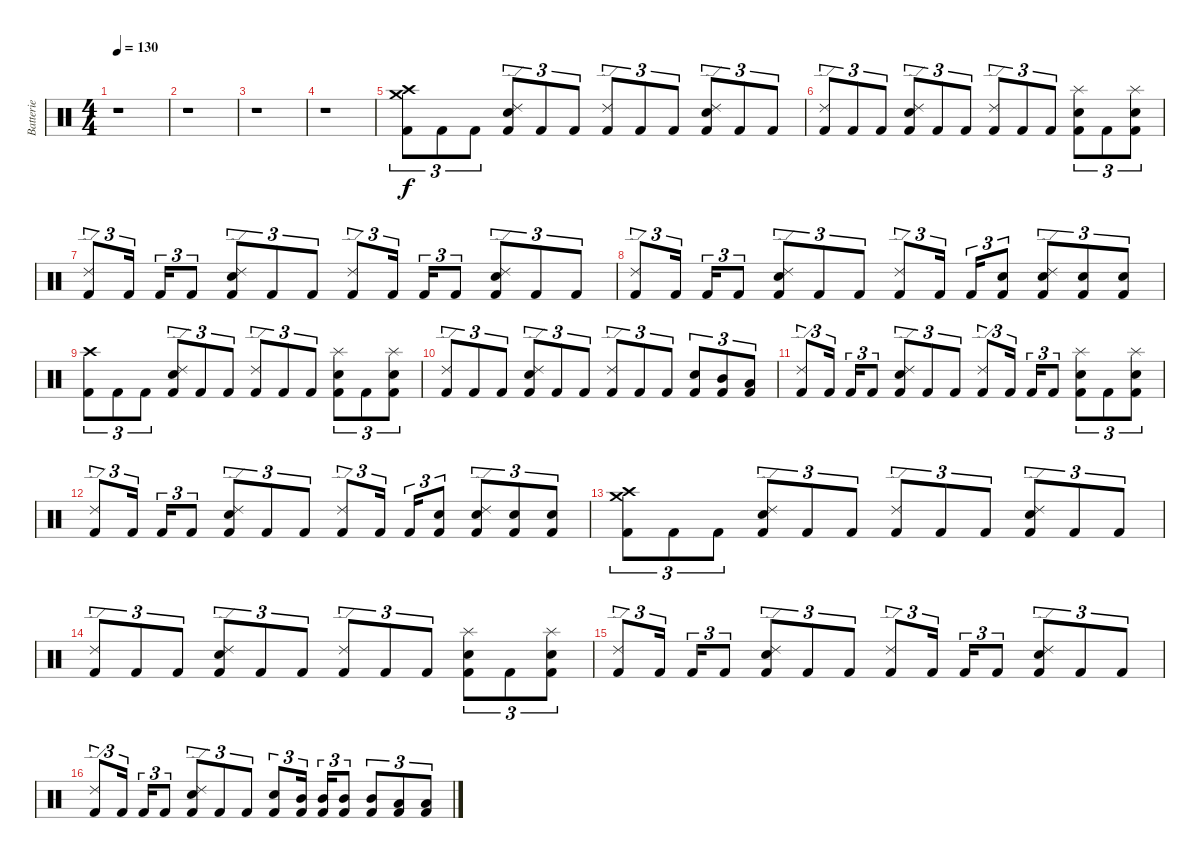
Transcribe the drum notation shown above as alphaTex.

\track ("Batterie" "Batterie") {instrument percussion}
\staff {score}
\articulation defaults
\ts (4 4)
\tempo 130
\clef neutral
\ks c
r.1{dy f} |
r.1 |
r.1 |
r.1 |
("Crash high (hit)" "Crash medium (hit)" "Kick (hit) 2").8{tu (3 2)} "Kick (hit) 2".8{tu (3 2)} "Kick (hit) 2".8{tu (3 2)} ("Ride (edge) 2" "Electric Snare (hit)" "Kick (hit) 2").8{tu (3 2)} "Kick (hit) 2".8{tu (3 2)} "Kick (hit) 2".8{tu (3 2)} ("Ride (edge) 2" "Kick (hit) 2").8{tu (3 2)} "Kick (hit) 2".8{tu (3 2)} "Kick (hit) 2".8{tu (3 2)} ("Ride (edge) 2" "Electric Snare (hit)" "Kick (hit) 2").8{tu (3 2)} "Kick (hit) 2".8{tu (3 2)} "Kick (hit) 2".8{tu (3 2)} |
("Ride (edge) 2" "Kick (hit) 2").8{tu (3 2)} "Kick (hit) 2".8{tu (3 2)} "Kick (hit) 2".8{tu (3 2)} ("Ride (edge) 2" "Electric Snare (hit)" "Kick (hit) 2").8{tu (3 2)} "Kick (hit) 2".8{tu (3 2)} "Kick (hit) 2".8{tu (3 2)} ("Ride (edge) 2" "Kick (hit) 2").8{tu (3 2)} "Kick (hit) 2".8{tu (3 2)} "Kick (hit) 2".8{tu (3 2)} ("Splash (hit)" "Electric Snare (hit)" "Kick (hit) 2").8{tu (3 2)} "Kick (hit) 2".8{tu (3 2)} ("Splash (hit)" "Electric Snare (hit)" "Kick (hit) 2").8{tu (3 2)} |
("Ride (edge) 2" "Kick (hit) 2").8{tu (3 2)} "Kick (hit) 2".16{tu (3 2)} "Kick (hit) 2".16{tu (3 2)} "Kick (hit) 2".8{tu (3 2)} ("Ride (edge) 2" "Electric Snare (hit)" "Kick (hit) 2").8{tu (3 2)} "Kick (hit) 2".8{tu (3 2)} "Kick (hit) 2".8{tu (3 2)} ("Ride (edge) 2" "Kick (hit) 2").8{tu (3 2)} "Kick (hit) 2".16{tu (3 2)} "Kick (hit) 2".16{tu (3 2)} "Kick (hit) 2".8{tu (3 2)} ("Ride (edge) 2" "Electric Snare (hit)" "Kick (hit) 2").8{tu (3 2)} "Kick (hit) 2".8{tu (3 2)} "Kick (hit) 2".8{tu (3 2)} |
("Ride (edge) 2" "Kick (hit) 2").8{tu (3 2)} "Kick (hit) 2".16{tu (3 2)} "Kick (hit) 2".16{tu (3 2)} "Kick (hit) 2".8{tu (3 2)} ("Ride (edge) 2" "Electric Snare (hit)" "Kick (hit) 2").8{tu (3 2)} "Kick (hit) 2".8{tu (3 2)} "Kick (hit) 2".8{tu (3 2)} ("Ride (edge) 2" "Kick (hit) 2").8{tu (3 2)} "Kick (hit) 2".16{tu (3 2)} "Kick (hit) 2".16{tu (3 2)} ("Electric Snare (hit)" "Kick (hit) 2").8{tu (3 2)} ("Ride (edge) 2" "Electric Snare (hit)" "Kick (hit) 2").8{tu (3 2)} ("Electric Snare (hit)" "Kick (hit) 2").8{tu (3 2)} ("Electric Snare (hit)" "Kick (hit) 2").8{tu (3 2)} |
("Crash high (hit)" "Kick (hit) 2").8{tu (3 2)} "Kick (hit) 2".8{tu (3 2)} "Kick (hit) 2".8{tu (3 2)} ("Ride (edge) 2" "Electric Snare (hit)" "Kick (hit) 2").8{tu (3 2)} "Kick (hit) 2".8{tu (3 2)} "Kick (hit) 2".8{tu (3 2)} ("Ride (edge) 2" "Kick (hit) 2").8{tu (3 2)} "Kick (hit) 2".8{tu (3 2)} "Kick (hit) 2".8{tu (3 2)} ("Splash (hit)" "Electric Snare (hit)" "Kick (hit) 2").8{tu (3 2)} "Kick (hit) 2".8{tu (3 2)} ("Splash (hit)" "Electric Snare (hit)" "Kick (hit) 2").8{tu (3 2)} |
("Ride (edge) 2" "Kick (hit) 2").8{tu (3 2)} "Kick (hit) 2".8{tu (3 2)} "Kick (hit) 2".8{tu (3 2)} ("Ride (edge) 2" "Electric Snare (hit)" "Kick (hit) 2").8{tu (3 2)} "Kick (hit) 2".8{tu (3 2)} "Kick (hit) 2".8{tu (3 2)} ("Ride (edge) 2" "Kick (hit) 2").8{tu (3 2)} "Kick (hit) 2".8{tu (3 2)} "Kick (hit) 2".8{tu (3 2)} ("Electric Snare (hit)" "Kick (hit) 2").8{tu (3 2)} ("Mid Tom (hit)" "Kick (hit) 2").8{tu (3 2)} ("Low Tom (hit)" "Kick (hit) 2").8{tu (3 2)} |
("Ride (edge) 2" "Kick (hit) 2").8{tu (3 2)} "Kick (hit) 2".16{tu (3 2)} "Kick (hit) 2".16{tu (3 2)} "Kick (hit) 2".8{tu (3 2)} ("Ride (edge) 2" "Electric Snare (hit)" "Kick (hit) 2").8{tu (3 2)} "Kick (hit) 2".8{tu (3 2)} "Kick (hit) 2".8{tu (3 2)} ("Ride (edge) 2" "Kick (hit) 2").8{tu (3 2)} "Kick (hit) 2".16{tu (3 2)} "Kick (hit) 2".16{tu (3 2)} "Kick (hit) 2".8{tu (3 2)} ("Splash (hit)" "Electric Snare (hit)" "Kick (hit) 2").8{tu (3 2)} "Kick (hit) 2".8{tu (3 2)} ("Splash (hit)" "Electric Snare (hit)" "Kick (hit) 2").8{tu (3 2)} |
("Ride (edge) 2" "Kick (hit) 2").8{tu (3 2)} "Kick (hit) 2".16{tu (3 2)} "Kick (hit) 2".16{tu (3 2)} "Kick (hit) 2".8{tu (3 2)} ("Ride (edge) 2" "Electric Snare (hit)" "Kick (hit) 2").8{tu (3 2)} "Kick (hit) 2".8{tu (3 2)} "Kick (hit) 2".8{tu (3 2)} ("Ride (edge) 2" "Kick (hit) 2").8{tu (3 2)} "Kick (hit) 2".16{tu (3 2)} "Kick (hit) 2".16{tu (3 2)} ("Electric Snare (hit)" "Kick (hit) 2").8{tu (3 2)} ("Ride (edge) 2" "Electric Snare (hit)" "Kick (hit) 2").8{tu (3 2)} ("Electric Snare (hit)" "Kick (hit) 2").8{tu (3 2)} ("Electric Snare (hit)" "Kick (hit) 2").8{tu (3 2)} |
("Crash high (hit)" "Crash medium (hit)" "Kick (hit) 2").8{tu (3 2)} "Kick (hit) 2".8{tu (3 2)} "Kick (hit) 2".8{tu (3 2)} ("Ride (edge) 2" "Electric Snare (hit)" "Kick (hit) 2").8{tu (3 2)} "Kick (hit) 2".8{tu (3 2)} "Kick (hit) 2".8{tu (3 2)} ("Ride (edge) 2" "Kick (hit) 2").8{tu (3 2)} "Kick (hit) 2".8{tu (3 2)} "Kick (hit) 2".8{tu (3 2)} ("Ride (edge) 2" "Electric Snare (hit)" "Kick (hit) 2").8{tu (3 2)} "Kick (hit) 2".8{tu (3 2)} "Kick (hit) 2".8{tu (3 2)} |
("Ride (edge) 2" "Kick (hit) 2").8{tu (3 2)} "Kick (hit) 2".8{tu (3 2)} "Kick (hit) 2".8{tu (3 2)} ("Ride (edge) 2" "Electric Snare (hit)" "Kick (hit) 2").8{tu (3 2)} "Kick (hit) 2".8{tu (3 2)} "Kick (hit) 2".8{tu (3 2)} ("Ride (edge) 2" "Kick (hit) 2").8{tu (3 2)} "Kick (hit) 2".8{tu (3 2)} "Kick (hit) 2".8{tu (3 2)} ("Splash (hit)" "Electric Snare (hit)" "Kick (hit) 2").8{tu (3 2)} "Kick (hit) 2".8{tu (3 2)} ("Splash (hit)" "Electric Snare (hit)" "Kick (hit) 2").8{tu (3 2)} |
("Ride (edge) 2" "Kick (hit) 2").8{tu (3 2)} "Kick (hit) 2".16{tu (3 2)} "Kick (hit) 2".16{tu (3 2)} "Kick (hit) 2".8{tu (3 2)} ("Ride (edge) 2" "Electric Snare (hit)" "Kick (hit) 2").8{tu (3 2)} "Kick (hit) 2".8{tu (3 2)} "Kick (hit) 2".8{tu (3 2)} ("Ride (edge) 2" "Kick (hit) 2").8{tu (3 2)} "Kick (hit) 2".16{tu (3 2)} "Kick (hit) 2".16{tu (3 2)} "Kick (hit) 2".8{tu (3 2)} ("Ride (edge) 2" "Electric Snare (hit)" "Kick (hit) 2").8{tu (3 2)} "Kick (hit) 2".8{tu (3 2)} "Kick (hit) 2".8{tu (3 2)} |
("Ride (edge) 2" "Kick (hit) 2").8{tu (3 2)} "Kick (hit) 2".16{tu (3 2)} "Kick (hit) 2".16{tu (3 2)} "Kick (hit) 2".8{tu (3 2)} ("Ride (edge) 2" "Electric Snare (hit)" "Kick (hit) 2").8{tu (3 2)} "Kick (hit) 2".8{tu (3 2)} "Kick (hit) 2".8{tu (3 2)} ("Electric Snare (hit)" "Kick (hit) 2").8{tu (3 2)} ("Mid Tom (hit)" "Kick (hit) 2").16{tu (3 2)} ("Mid Tom (hit)" "Kick (hit) 2").16{tu (3 2)} ("Mid Tom (hit)" "Kick (hit) 2").8{tu (3 2)} ("Mid Tom (hit)" "Kick (hit) 2").8{tu (3 2)} ("Low Tom (hit)" "Kick (hit) 2").8{tu (3 2)} ("Low Floor Tom (hit)" "Kick (hit) 2").8{tu (3 2)}
